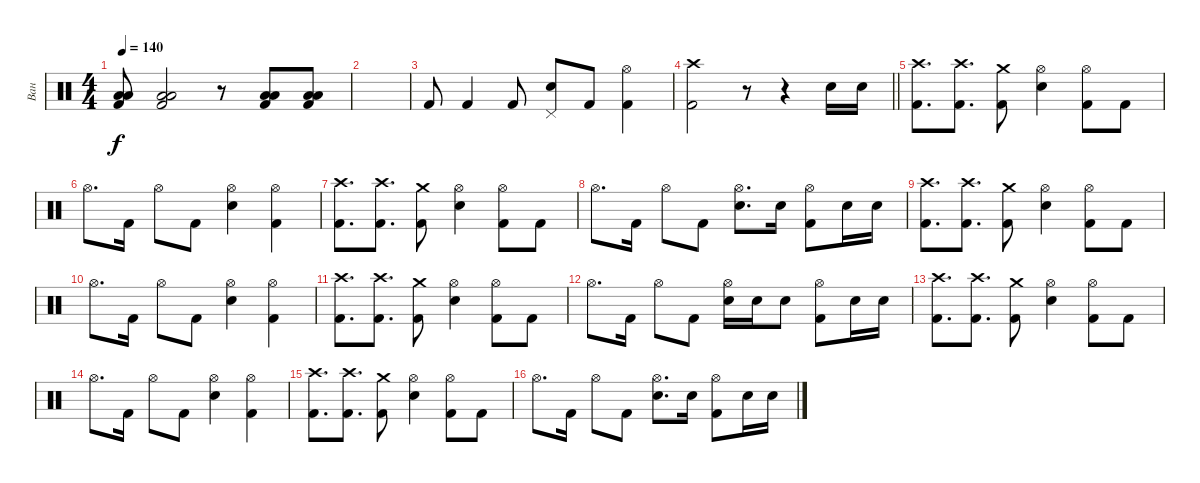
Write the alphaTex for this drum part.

\track ("Ван" "Ван") {instrument percussion}
\staff {score}
\articulation defaults
\ts (4 4)
\tempo 140
\clef neutral
\ks c
("Low Floor Tom (hit)" "Low Floor Tom (hit)" "Kick (hit) 2").8{dy f} ("Low Floor Tom (hit)" "Low Floor Tom (hit)" "Kick (hit) 2").2 r.8 ("Low Floor Tom (hit)" "Low Floor Tom (hit)" "Kick (hit) 2").8 ("Low Floor Tom (hit)" "Low Floor Tom (hit)" "Kick (hit) 2").8 |
|
"Kick (hit) 2".8 "Kick (hit) 2".4 "Kick (hit) 2".8 ("Pedal Hi-Hat (hit)" "Snare (hit) 2").8 "Kick (hit) 2".8 ("Hi-Hat (open)" "Kick (hit) 2").4 |
\barLineRight lightlight
("Crash high (hit)" "Kick (hit) 2").2 r.8 r.4 "Snare (hit) 2".16 "Snare (hit) 2".16 |
("Crash high (hit)" "Kick (hit) 2").8{d} ("Crash high (hit)" "Kick (hit) 2").8{d} ("Crash medium (hit)" "Kick (hit) 2").8 ("Hi-Hat (open)" "Snare (hit) 2").4 ("Hi-Hat (open)" "Kick (hit) 2").8 "Kick (hit) 2".8 |
"Hi-Hat (open)".8{d} "Kick (hit) 2".16 "Hi-Hat (open)".8 "Kick (hit) 2".8 ("Hi-Hat (open)" "Snare (hit) 2").4 ("Hi-Hat (open)" "Kick (hit) 2").4 |
("Crash high (hit)" "Kick (hit) 2").8{d} ("Crash high (hit)" "Kick (hit) 2").8{d} ("Crash medium (hit)" "Kick (hit) 2").8 ("Hi-Hat (open)" "Snare (hit) 2").4 ("Hi-Hat (open)" "Kick (hit) 2").8 "Kick (hit) 2".8 |
"Hi-Hat (open)".8{d} "Kick (hit) 2".16 "Hi-Hat (open)".8 "Kick (hit) 2".8 ("Hi-Hat (open)" "Snare (hit) 2").8{d} "Snare (hit) 2".16 ("Hi-Hat (open)" "Kick (hit) 2").8 "Snare (hit) 2".16 "Snare (hit) 2".16 |
("Crash high (hit)" "Kick (hit) 2").8{d} ("Crash high (hit)" "Kick (hit) 2").8{d} ("Crash medium (hit)" "Kick (hit) 2").8 ("Hi-Hat (open)" "Snare (hit) 2").4 ("Hi-Hat (open)" "Kick (hit) 2").8 "Kick (hit) 2".8 |
"Hi-Hat (open)".8{d} "Kick (hit) 2".16 "Hi-Hat (open)".8 "Kick (hit) 2".8 ("Hi-Hat (open)" "Snare (hit) 2").4 ("Hi-Hat (open)" "Kick (hit) 2").4 |
("Crash high (hit)" "Kick (hit) 2").8{d} ("Crash high (hit)" "Kick (hit) 2").8{d} ("Crash medium (hit)" "Kick (hit) 2").8 ("Hi-Hat (open)" "Snare (hit) 2").4 ("Hi-Hat (open)" "Kick (hit) 2").8 "Kick (hit) 2".8 |
"Hi-Hat (open)".8{d} "Kick (hit) 2".16 "Hi-Hat (open)".8 "Kick (hit) 2".8 ("Hi-Hat (open)" "Snare (hit) 2").16 "Snare (hit) 2".16 "Snare (hit) 2".8 ("Hi-Hat (open)" "Kick (hit) 2").8 "Snare (hit) 2".16 "Snare (hit) 2".16 |
("Crash high (hit)" "Kick (hit) 2").8{d} ("Crash high (hit)" "Kick (hit) 2").8{d} ("Crash medium (hit)" "Kick (hit) 2").8 ("Hi-Hat (open)" "Snare (hit) 2").4 ("Hi-Hat (open)" "Kick (hit) 2").8 "Kick (hit) 2".8 |
"Hi-Hat (open)".8{d} "Kick (hit) 2".16 "Hi-Hat (open)".8 "Kick (hit) 2".8 ("Hi-Hat (open)" "Snare (hit) 2").4 ("Hi-Hat (open)" "Kick (hit) 2").4 |
("Crash high (hit)" "Kick (hit) 2").8{d} ("Crash high (hit)" "Kick (hit) 2").8{d} ("Crash medium (hit)" "Kick (hit) 2").8 ("Hi-Hat (open)" "Snare (hit) 2").4 ("Hi-Hat (open)" "Kick (hit) 2").8 "Kick (hit) 2".8 |
"Hi-Hat (open)".8{d} "Kick (hit) 2".16 "Hi-Hat (open)".8 "Kick (hit) 2".8 ("Hi-Hat (open)" "Snare (hit) 2").8{d} "Snare (hit) 2".16 ("Hi-Hat (open)" "Kick (hit) 2").8 "Snare (hit) 2".16 "Snare (hit) 2".16
